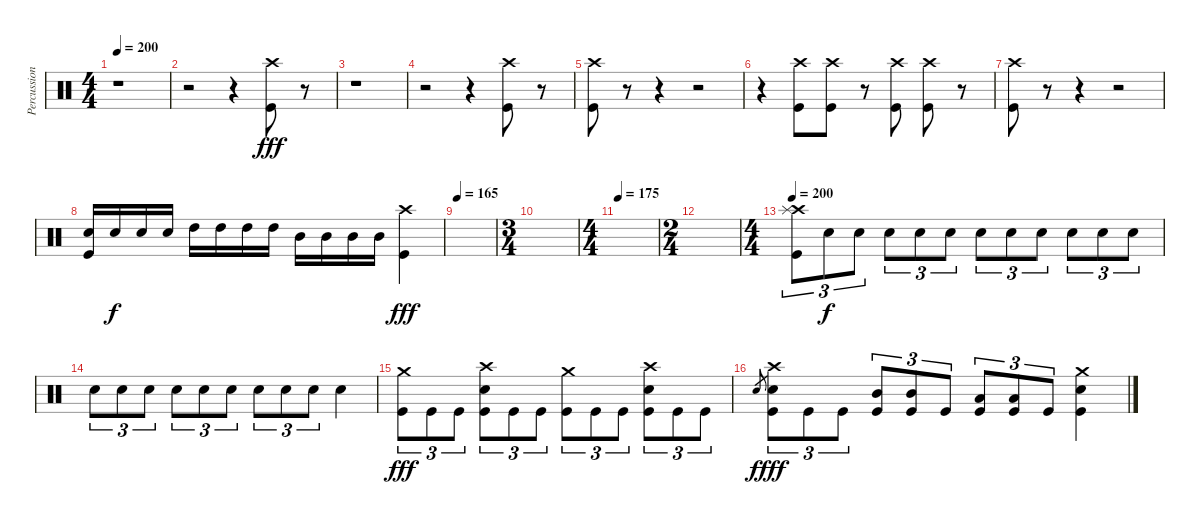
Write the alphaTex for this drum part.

\track ("Percussion" "Percussion") {instrument percussion}
\staff {score}
\articulation defaults
\ts (4 4)
\tempo 200
\clef neutral
\ks c
r.1{dy fff} |
r.2 r.4 ("Crash high (hit)" "Kick (hit)").8 r.8{volume 0} |
r.1{volume 12} |
r.2 r.4 ("Crash high (hit)" "Kick (hit)").8 r.8{volume 0} |
("Crash high (hit)" "Kick (hit)").8{volume 12} r.8{volume 0} r.4{volume 12} r.2 |
r.4 ("Crash high (hit)" "Kick (hit)").8 ("Crash high (hit)" "Kick (hit)").8 r.8 ("Crash high (hit)" "Kick (hit)").8 ("Crash high (hit)" "Kick (hit)").8 r.8{volume 0} |
("Crash high (hit)" "Kick (hit)").8{volume 12} r.8{volume 0} r.4{volume 12} r.2 |
("Snare (hit) 2" "Kick (hit)").16 "Snare (hit) 2".16{dy f} "Snare (hit) 2".16 "Snare (hit) 2".16 "High Tom (hit)".16 "High Tom (hit)".16 "High Tom (hit)".16 "High Tom (hit)".16 "Mid Tom (hit)".16 "Mid Tom (hit)".16 "Mid Tom (hit)".16 "Mid Tom (hit)".16 ("Crash high (hit)" "Kick (hit)").4{dy fff} |
\tempo 165
|
\ts (3 4)
|
\ts (4 4)
\tempo 175
|
\ts (2 4)
|
\ts (4 4)
\tempo 200
("Crash high (hit)" "Splash (hit)" "Kick (hit)").8{tu (3 2)} "Snare (hit) 2".8{tu (3 2) dy f} "Snare (hit) 2".8{tu (3 2)} "Snare (hit) 2".8{tu (3 2)} "Snare (hit) 2".8{tu (3 2)} "Snare (hit) 2".8{tu (3 2)} "Snare (hit) 2".8{tu (3 2)} "Snare (hit) 2".8{tu (3 2)} "Snare (hit) 2".8{tu (3 2)} "Snare (hit) 2".8{tu (3 2)} "Snare (hit) 2".8{tu (3 2)} "Snare (hit) 2".8{tu (3 2)} |
"Snare (hit) 2".8{tu (3 2)} "Snare (hit) 2".8{tu (3 2)} "Snare (hit) 2".8{tu (3 2)} "Snare (hit) 2".8{tu (3 2)} "Snare (hit) 2".8{tu (3 2)} "Snare (hit) 2".8{tu (3 2)} "Snare (hit) 2".8{tu (3 2)} "Snare (hit) 2".8{tu (3 2)} "Snare (hit) 2".8{tu (3 2)} "Snare (hit) 2".4 |
("Crash medium (hit)" "Kick (hit)").8{tu (3 2) dy fff} "Kick (hit)".8{tu (3 2)} "Kick (hit)".8{tu (3 2)} ("Crash high (hit)" "Snare (hit) 2" "Kick (hit)").8{tu (3 2)} "Kick (hit)".8{tu (3 2)} "Kick (hit)".8{tu (3 2)} ("Crash medium (hit)" "Kick (hit)").8{tu (3 2)} "Kick (hit)".8{tu (3 2)} "Kick (hit)".8{tu (3 2)} ("Crash high (hit)" "Snare (hit) 2" "Kick (hit)").8{tu (3 2)} "Kick (hit)".8{tu (3 2)} "Kick (hit)".8{tu (3 2)} |
"Snare (hit) 2".8{gr dy f} ("Crash high (hit)" "Snare (hit) 2" "Kick (hit)").8{tu (3 2) dy fff} "Kick (hit)".8{tu (3 2)} "Kick (hit)".8{tu (3 2)} ("Mid Tom (hit)" "Kick (hit)").8{tu (3 2)} ("Mid Tom (hit)" "Kick (hit)").8{tu (3 2)} "Kick (hit)".8{tu (3 2)} ("Low Tom (hit)" "Kick (hit)").8{tu (3 2)} ("Low Tom (hit)" "Kick (hit)").8{tu (3 2)} "Kick (hit)".8{tu (3 2)} ("Crash medium (hit)" "Snare (hit) 2" "Kick (hit)").4
